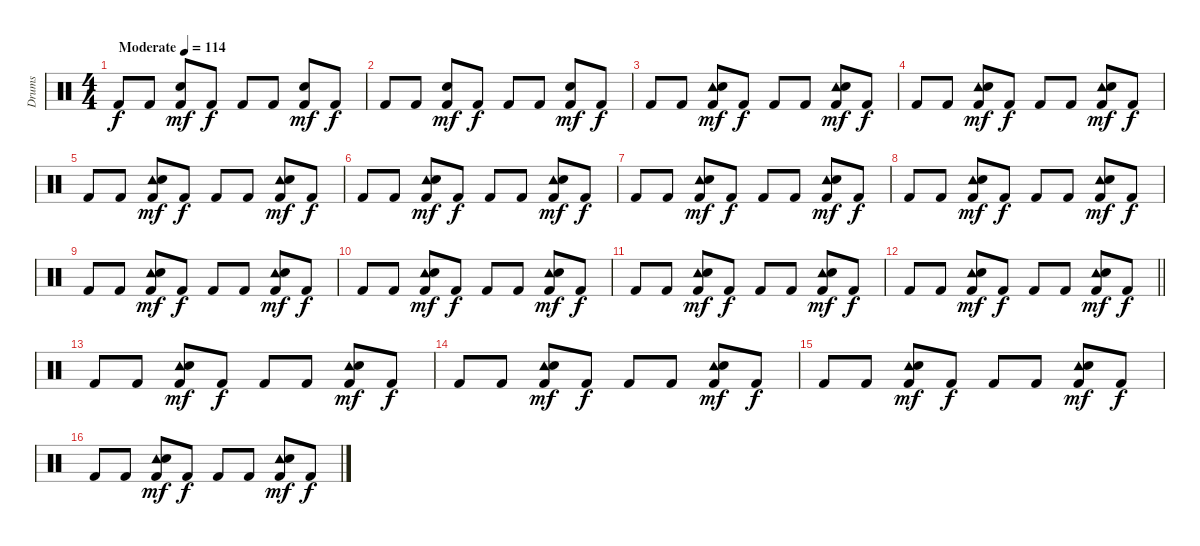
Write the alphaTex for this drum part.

\track ("Drums" "Drums") {instrument percussion}
\staff {score}
\articulation defaults
\ts (4 4)
\tempo (114 "Moderate")
\clef neutral
\ks c "Kick (hit) 2".8{dy f} "Kick (hit) 2".8
("Electric Snare (hit)" "Kick (hit) 2").8{dy mf} "Kick (hit) 2".8{dy f} "Kick (hit) 2".8 "Kick (hit) 2".8 ("Electric Snare (hit)" "Kick (hit) 2").8{dy mf} "Kick (hit) 2".8{dy f} |
"Kick (hit) 2".8 "Kick (hit) 2".8 ("Electric Snare (hit)" "Kick (hit) 2").8{dy mf} "Kick (hit) 2".8{dy f} "Kick (hit) 2".8 "Kick (hit) 2".8 ("Electric Snare (hit)" "Kick (hit) 2").8{dy mf} "Kick (hit) 2".8{dy f} |
"Kick (hit) 2".8 "Kick (hit) 2".8 ("Tambourine (hit)" "Electric Snare (hit)" "Kick (hit) 2").8{dy mf} "Kick (hit) 2".8{dy f} "Kick (hit) 2".8 "Kick (hit) 2".8 ("Tambourine (hit)" "Electric Snare (hit)" "Kick (hit) 2").8{dy mf} "Kick (hit) 2".8{dy f} |
"Kick (hit) 2".8 "Kick (hit) 2".8 ("Tambourine (hit)" "Electric Snare (hit)" "Kick (hit) 2").8{dy mf} "Kick (hit) 2".8{dy f} "Kick (hit) 2".8 "Kick (hit) 2".8 ("Tambourine (hit)" "Electric Snare (hit)" "Kick (hit) 2").8{dy mf} "Kick (hit) 2".8{dy f} |
"Kick (hit) 2".8 "Kick (hit) 2".8 ("Tambourine (hit)" "Electric Snare (hit)" "Kick (hit) 2").8{dy mf} "Kick (hit) 2".8{dy f} "Kick (hit) 2".8 "Kick (hit) 2".8 ("Tambourine (hit)" "Electric Snare (hit)" "Kick (hit) 2").8{dy mf} "Kick (hit) 2".8{dy f} |
"Kick (hit) 2".8 "Kick (hit) 2".8 ("Tambourine (hit)" "Electric Snare (hit)" "Kick (hit) 2").8{dy mf} "Kick (hit) 2".8{dy f} "Kick (hit) 2".8 "Kick (hit) 2".8 ("Tambourine (hit)" "Electric Snare (hit)" "Kick (hit) 2").8{dy mf} "Kick (hit) 2".8{dy f} |
"Kick (hit) 2".8 "Kick (hit) 2".8 ("Tambourine (hit)" "Electric Snare (hit)" "Kick (hit) 2").8{dy mf} "Kick (hit) 2".8{dy f} "Kick (hit) 2".8 "Kick (hit) 2".8 ("Tambourine (hit)" "Electric Snare (hit)" "Kick (hit) 2").8{dy mf} "Kick (hit) 2".8{dy f} |
"Kick (hit) 2".8 "Kick (hit) 2".8 ("Tambourine (hit)" "Electric Snare (hit)" "Kick (hit) 2").8{dy mf} "Kick (hit) 2".8{dy f} "Kick (hit) 2".8 "Kick (hit) 2".8 ("Tambourine (hit)" "Electric Snare (hit)" "Kick (hit) 2").8{dy mf} "Kick (hit) 2".8{dy f} |
"Kick (hit) 2".8 "Kick (hit) 2".8 ("Tambourine (hit)" "Electric Snare (hit)" "Kick (hit) 2").8{dy mf} "Kick (hit) 2".8{dy f} "Kick (hit) 2".8 "Kick (hit) 2".8 ("Tambourine (hit)" "Electric Snare (hit)" "Kick (hit) 2").8{dy mf} "Kick (hit) 2".8{dy f} |
"Kick (hit) 2".8 "Kick (hit) 2".8 ("Tambourine (hit)" "Electric Snare (hit)" "Kick (hit) 2").8{dy mf} "Kick (hit) 2".8{dy f} "Kick (hit) 2".8 "Kick (hit) 2".8 ("Tambourine (hit)" "Electric Snare (hit)" "Kick (hit) 2").8{dy mf} "Kick (hit) 2".8{dy f} |
"Kick (hit) 2".8 "Kick (hit) 2".8 ("Tambourine (hit)" "Electric Snare (hit)" "Kick (hit) 2").8{dy mf} "Kick (hit) 2".8{dy f} "Kick (hit) 2".8 "Kick (hit) 2".8 ("Tambourine (hit)" "Electric Snare (hit)" "Kick (hit) 2").8{dy mf} "Kick (hit) 2".8{dy f} |
\barLineRight lightlight "Kick (hit) 2".8 "Kick (hit) 2".8
("Tambourine (hit)" "Electric Snare (hit)" "Kick (hit) 2").8{dy mf} "Kick (hit) 2".8{dy f} "Kick (hit) 2".8 "Kick (hit) 2".8 ("Tambourine (hit)" "Electric Snare (hit)" "Kick (hit) 2").8{dy mf} "Kick (hit) 2".8{dy f} |
"Kick (hit) 2".8 "Kick (hit) 2".8 ("Tambourine (hit)" "Electric Snare (hit)" "Kick (hit) 2").8{dy mf} "Kick (hit) 2".8{dy f} "Kick (hit) 2".8 "Kick (hit) 2".8 ("Tambourine (hit)" "Electric Snare (hit)" "Kick (hit) 2").8{dy mf} "Kick (hit) 2".8{dy f} |
"Kick (hit) 2".8 "Kick (hit) 2".8 ("Tambourine (hit)" "Electric Snare (hit)" "Kick (hit) 2").8{dy mf} "Kick (hit) 2".8{dy f} "Kick (hit) 2".8 "Kick (hit) 2".8 ("Tambourine (hit)" "Electric Snare (hit)" "Kick (hit) 2").8{dy mf} "Kick (hit) 2".8{dy f} |
"Kick (hit) 2".8 "Kick (hit) 2".8 ("Tambourine (hit)" "Electric Snare (hit)" "Kick (hit) 2").8{dy mf} "Kick (hit) 2".8{dy f} "Kick (hit) 2".8 "Kick (hit) 2".8 ("Tambourine (hit)" "Electric Snare (hit)" "Kick (hit) 2").8{dy mf} "Kick (hit) 2".8{dy f} |
"Kick (hit) 2".8 "Kick (hit) 2".8 ("Tambourine (hit)" "Electric Snare (hit)" "Kick (hit) 2").8{dy mf} "Kick (hit) 2".8{dy f} "Kick (hit) 2".8 "Kick (hit) 2".8 ("Tambourine (hit)" "Electric Snare (hit)" "Kick (hit) 2").8{dy mf} "Kick (hit) 2".8{dy f}
